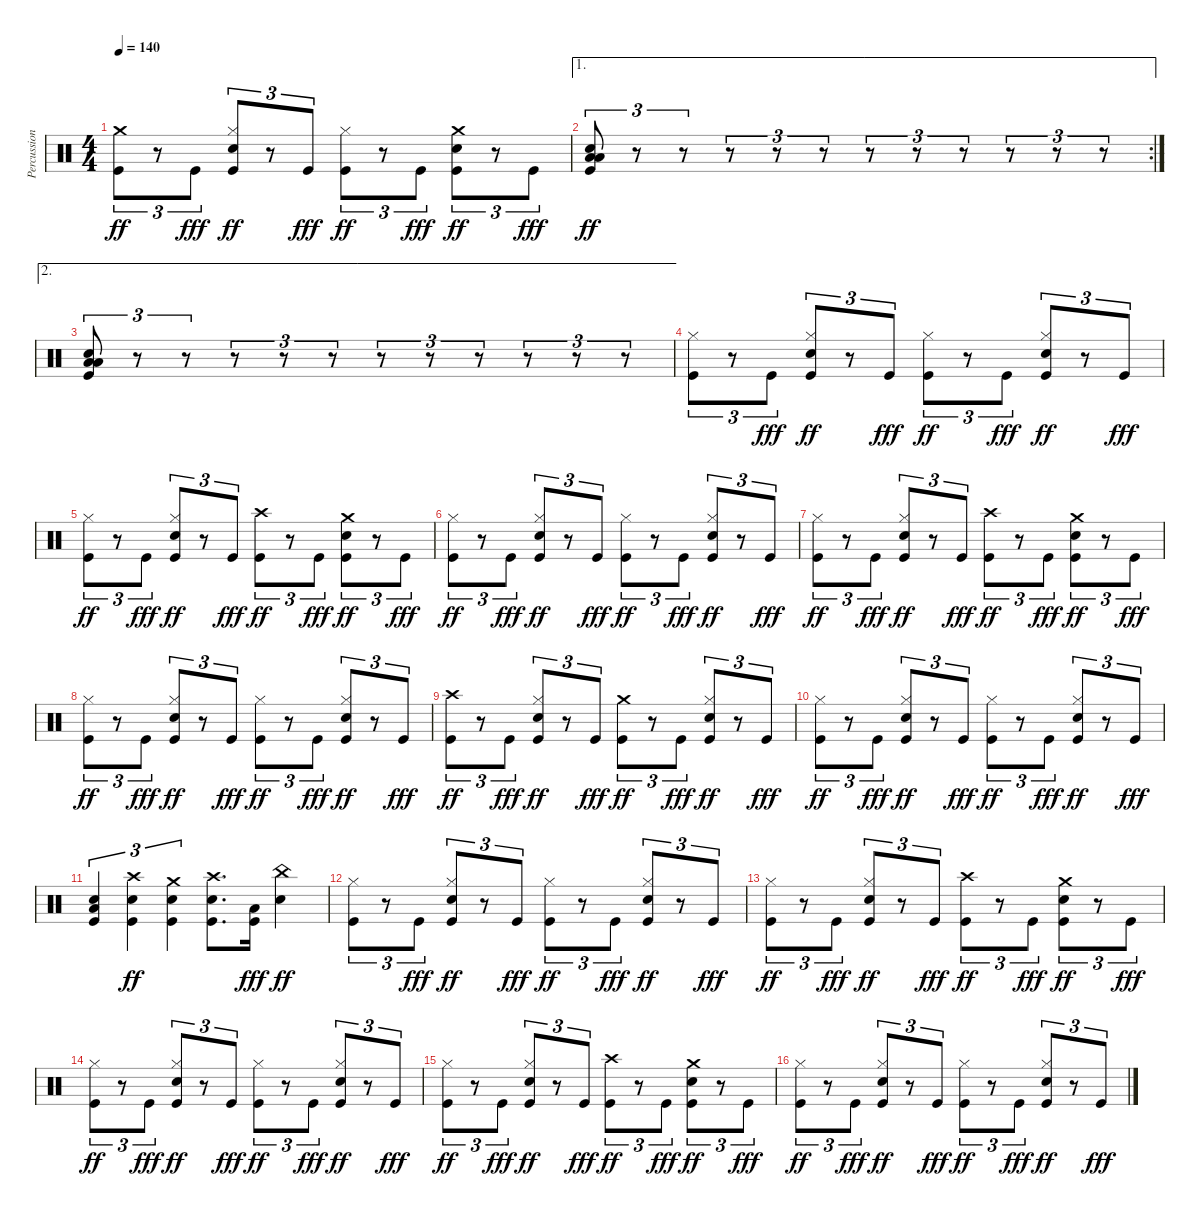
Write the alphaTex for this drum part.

\track ("Percussions" "Percussion") {instrument percussion}
\staff {score}
\articulation defaults
\ts (4 4)
\tempo 140
\clef neutral
\ks c
("Crash medium (hit)" "Kick (hit)").8{tu (3 2) dy ff} r.8{tu (3 2)} "Kick (hit)".8{tu (3 2) dy fff} ("Hi-Hat (closed)" "Snare (hit) 2" "Kick (hit)").8{tu (3 2) dy ff} r.8{tu (3 2)} "Kick (hit)".8{tu (3 2) dy fff} ("Hi-Hat (closed)" "Kick (hit)").8{tu (3 2) dy ff} r.8{tu (3 2)} "Kick (hit)".8{tu (3 2) dy fff} ("Crash medium (hit)" "Snare (hit) 2" "Kick (hit)").8{tu (3 2) dy ff} r.8{tu (3 2)} "Kick (hit)".8{tu (3 2) dy fff} |
\ae 1
\rc 2
("Snare (hit) 2" "Low Tom (hit)" "Low Floor Tom (hit)" "Kick (hit)").8{tu (3 2) dy ff} r.8{tu (3 2)} r.8{tu (3 2)} r.8{tu (3 2)} r.8{tu (3 2)} r.8{tu (3 2)} r.8{tu (3 2)} r.8{tu (3 2)} r.8{tu (3 2)} r.8{tu (3 2)} r.8{tu (3 2)} r.8{tu (3 2)} |
\ae 2
("Snare (hit) 2" "Low Tom (hit)" "Low Floor Tom (hit)" "Kick (hit)").8{tu (3 2)} r.8{tu (3 2)} r.8{tu (3 2)} r.8{tu (3 2)} r.8{tu (3 2)} r.8{tu (3 2)} r.8{tu (3 2)} r.8{tu (3 2)} r.8{tu (3 2)} r.8{tu (3 2)} r.8{tu (3 2)} r.8{tu (3 2)} |
("Hi-Hat (closed)" "Kick (hit)").8{tu (3 2)} r.8{tu (3 2)} "Kick (hit)".8{tu (3 2) dy fff} ("Hi-Hat (closed)" "Snare (hit) 2" "Kick (hit)").8{tu (3 2) dy ff} r.8{tu (3 2)} "Kick (hit)".8{tu (3 2) dy fff} ("Hi-Hat (closed)" "Kick (hit)").8{tu (3 2) dy ff} r.8{tu (3 2)} "Kick (hit)".8{tu (3 2) dy fff} ("Hi-Hat (closed)" "Snare (hit) 2" "Kick (hit)").8{tu (3 2) dy ff} r.8{tu (3 2)} "Kick (hit)".8{tu (3 2) dy fff} |
("Hi-Hat (closed)" "Kick (hit)").8{tu (3 2) dy ff} r.8{tu (3 2)} "Kick (hit)".8{tu (3 2) dy fff} ("Hi-Hat (closed)" "Snare (hit) 2" "Kick (hit)").8{tu (3 2) dy ff} r.8{tu (3 2)} "Kick (hit)".8{tu (3 2) dy fff} ("Crash high (hit)" "Kick (hit)").8{tu (3 2) dy ff} r.8{tu (3 2)} "Kick (hit)".8{tu (3 2) dy fff} ("Crash medium (hit)" "Snare (hit) 2" "Kick (hit)").8{tu (3 2) dy ff} r.8{tu (3 2)} "Kick (hit)".8{tu (3 2) dy fff} |
("Hi-Hat (closed)" "Kick (hit)").8{tu (3 2) dy ff} r.8{tu (3 2)} "Kick (hit)".8{tu (3 2) dy fff} ("Hi-Hat (closed)" "Snare (hit) 2" "Kick (hit)").8{tu (3 2) dy ff} r.8{tu (3 2)} "Kick (hit)".8{tu (3 2) dy fff} ("Hi-Hat (closed)" "Kick (hit)").8{tu (3 2) dy ff} r.8{tu (3 2)} "Kick (hit)".8{tu (3 2) dy fff} ("Hi-Hat (closed)" "Snare (hit) 2" "Kick (hit)").8{tu (3 2) dy ff} r.8{tu (3 2)} "Kick (hit)".8{tu (3 2) dy fff} |
("Hi-Hat (closed)" "Kick (hit)").8{tu (3 2) dy ff} r.8{tu (3 2)} "Kick (hit)".8{tu (3 2) dy fff} ("Hi-Hat (closed)" "Snare (hit) 2" "Kick (hit)").8{tu (3 2) dy ff} r.8{tu (3 2)} "Kick (hit)".8{tu (3 2) dy fff} ("Crash high (hit)" "Kick (hit)").8{tu (3 2) dy ff} r.8{tu (3 2)} "Kick (hit)".8{tu (3 2) dy fff} ("Crash medium (hit)" "Snare (hit) 2" "Kick (hit)").8{tu (3 2) dy ff} r.8{tu (3 2)} "Kick (hit)".8{tu (3 2) dy fff} |
("Hi-Hat (closed)" "Kick (hit)").8{tu (3 2) dy ff} r.8{tu (3 2)} "Kick (hit)".8{tu (3 2) dy fff} ("Hi-Hat (closed)" "Snare (hit) 2" "Kick (hit)").8{tu (3 2) dy ff} r.8{tu (3 2)} "Kick (hit)".8{tu (3 2) dy fff} ("Hi-Hat (closed)" "Kick (hit)").8{tu (3 2) dy ff} r.8{tu (3 2)} "Kick (hit)".8{tu (3 2) dy fff} ("Hi-Hat (closed)" "Snare (hit) 2" "Kick (hit)").8{tu (3 2) dy ff} r.8{tu (3 2)} "Kick (hit)".8{tu (3 2) dy fff} |
("Crash high (hit)" "Kick (hit)").8{tu (3 2) dy ff} r.8{tu (3 2)} "Kick (hit)".8{tu (3 2) dy fff} ("Hi-Hat (closed)" "Snare (hit) 2" "Kick (hit)").8{tu (3 2) dy ff} r.8{tu (3 2)} "Kick (hit)".8{tu (3 2) dy fff} ("Crash medium (hit)" "Kick (hit)").8{tu (3 2) dy ff} r.8{tu (3 2)} "Kick (hit)".8{tu (3 2) dy fff} ("Hi-Hat (closed)" "Snare (hit) 2" "Kick (hit)").8{tu (3 2) dy ff} r.8{tu (3 2)} "Kick (hit)".8{tu (3 2) dy fff} |
("Hi-Hat (closed)" "Kick (hit)").8{tu (3 2) dy ff} r.8{tu (3 2)} "Kick (hit)".8{tu (3 2) dy fff} ("Hi-Hat (closed)" "Snare (hit) 2" "Kick (hit)").8{tu (3 2) dy ff} r.8{tu (3 2)} "Kick (hit)".8{tu (3 2) dy fff} ("Hi-Hat (closed)" "Kick (hit)").8{tu (3 2) dy ff} r.8{tu (3 2)} "Kick (hit)".8{tu (3 2) dy fff} ("Hi-Hat (closed)" "Snare (hit) 2" "Kick (hit)").8{tu (3 2) dy ff} r.8{tu (3 2)} "Kick (hit)".8{tu (3 2) dy fff} |
("Low Floor Tom (hit)" "Snare (hit) 2" "Kick (hit)").4{tu (3 2)} ("Crash high (hit)" "Snare (hit) 2" "Kick (hit)").4{tu (3 2) dy ff} ("Crash medium (hit)" "Snare (hit) 2" "Kick (hit)").4{tu (3 2)} ("Crash high (hit)" "Snare (hit) 2" "Kick (hit)").8{d} ("Low Floor Tom (hit)" "Kick (hit)").16{dy fff} ("China (hit)" "Snare (hit) 2").4{dy ff} |
("Hi-Hat (closed)" "Kick (hit)").8{tu (3 2)} r.8{tu (3 2)} "Kick (hit)".8{tu (3 2) dy fff} ("Hi-Hat (closed)" "Snare (hit) 2" "Kick (hit)").8{tu (3 2) dy ff} r.8{tu (3 2)} "Kick (hit)".8{tu (3 2) dy fff} ("Hi-Hat (closed)" "Kick (hit)").8{tu (3 2) dy ff} r.8{tu (3 2)} "Kick (hit)".8{tu (3 2) dy fff} ("Hi-Hat (closed)" "Snare (hit) 2" "Kick (hit)").8{tu (3 2) dy ff} r.8{tu (3 2)} "Kick (hit)".8{tu (3 2) dy fff} |
("Hi-Hat (closed)" "Kick (hit)").8{tu (3 2) dy ff} r.8{tu (3 2)} "Kick (hit)".8{tu (3 2) dy fff} ("Hi-Hat (closed)" "Snare (hit) 2" "Kick (hit)").8{tu (3 2) dy ff} r.8{tu (3 2)} "Kick (hit)".8{tu (3 2) dy fff} ("Crash high (hit)" "Kick (hit)").8{tu (3 2) dy ff} r.8{tu (3 2)} "Kick (hit)".8{tu (3 2) dy fff} ("Crash medium (hit)" "Snare (hit) 2" "Kick (hit)").8{tu (3 2) dy ff} r.8{tu (3 2)} "Kick (hit)".8{tu (3 2) dy fff} |
("Hi-Hat (closed)" "Kick (hit)").8{tu (3 2) dy ff} r.8{tu (3 2)} "Kick (hit)".8{tu (3 2) dy fff} ("Hi-Hat (closed)" "Snare (hit) 2" "Kick (hit)").8{tu (3 2) dy ff} r.8{tu (3 2)} "Kick (hit)".8{tu (3 2) dy fff} ("Hi-Hat (closed)" "Kick (hit)").8{tu (3 2) dy ff} r.8{tu (3 2)} "Kick (hit)".8{tu (3 2) dy fff} ("Hi-Hat (closed)" "Snare (hit) 2" "Kick (hit)").8{tu (3 2) dy ff} r.8{tu (3 2)} "Kick (hit)".8{tu (3 2) dy fff} |
("Hi-Hat (closed)" "Kick (hit)").8{tu (3 2) dy ff} r.8{tu (3 2)} "Kick (hit)".8{tu (3 2) dy fff} ("Hi-Hat (closed)" "Snare (hit) 2" "Kick (hit)").8{tu (3 2) dy ff} r.8{tu (3 2)} "Kick (hit)".8{tu (3 2) dy fff} ("Crash high (hit)" "Kick (hit)").8{tu (3 2) dy ff} r.8{tu (3 2)} "Kick (hit)".8{tu (3 2) dy fff} ("Crash medium (hit)" "Snare (hit) 2" "Kick (hit)").8{tu (3 2) dy ff} r.8{tu (3 2)} "Kick (hit)".8{tu (3 2) dy fff} |
("Hi-Hat (closed)" "Kick (hit)").8{tu (3 2) dy ff} r.8{tu (3 2)} "Kick (hit)".8{tu (3 2) dy fff} ("Hi-Hat (closed)" "Snare (hit) 2" "Kick (hit)").8{tu (3 2) dy ff} r.8{tu (3 2)} "Kick (hit)".8{tu (3 2) dy fff} ("Hi-Hat (closed)" "Kick (hit)").8{tu (3 2) dy ff} r.8{tu (3 2)} "Kick (hit)".8{tu (3 2) dy fff} ("Hi-Hat (closed)" "Snare (hit) 2" "Kick (hit)").8{tu (3 2) dy ff} r.8{tu (3 2)} "Kick (hit)".8{tu (3 2) dy fff}
